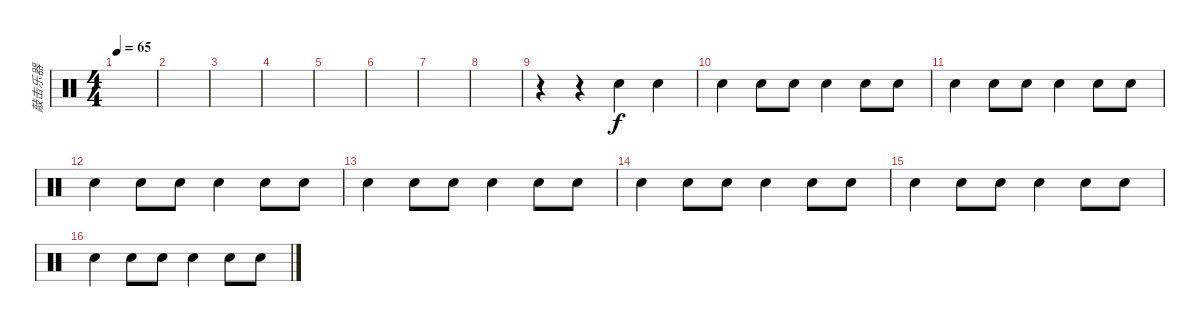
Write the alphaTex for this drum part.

\track ("敲击乐器" "敲击乐器") {instrument percussion}
\staff {score}
\articulation defaults
\ts (4 4)
\tempo 65
\clef neutral
\ks c
|
|
|
|
|
|
|
|
r.4 r.4 "Snare (hit) 2".4 "Snare (hit) 2".4 |
"Snare (hit) 2".4 "Snare (hit) 2".8 "Snare (hit) 2".8 "Snare (hit) 2".4 "Snare (hit) 2".8 "Snare (hit) 2".8 |
"Snare (hit) 2".4 "Snare (hit) 2".8 "Snare (hit) 2".8 "Snare (hit) 2".4 "Snare (hit) 2".8 "Snare (hit) 2".8 |
"Snare (hit) 2".4 "Snare (hit) 2".8 "Snare (hit) 2".8 "Snare (hit) 2".4 "Snare (hit) 2".8 "Snare (hit) 2".8 |
"Snare (hit) 2".4 "Snare (hit) 2".8 "Snare (hit) 2".8 "Snare (hit) 2".4 "Snare (hit) 2".8 "Snare (hit) 2".8 |
"Snare (hit) 2".4 "Snare (hit) 2".8 "Snare (hit) 2".8 "Snare (hit) 2".4 "Snare (hit) 2".8 "Snare (hit) 2".8 |
"Snare (hit) 2".4 "Snare (hit) 2".8 "Snare (hit) 2".8 "Snare (hit) 2".4 "Snare (hit) 2".8 "Snare (hit) 2".8 |
"Snare (hit) 2".4 "Snare (hit) 2".8 "Snare (hit) 2".8 "Snare (hit) 2".4 "Snare (hit) 2".8 "Snare (hit) 2".8
